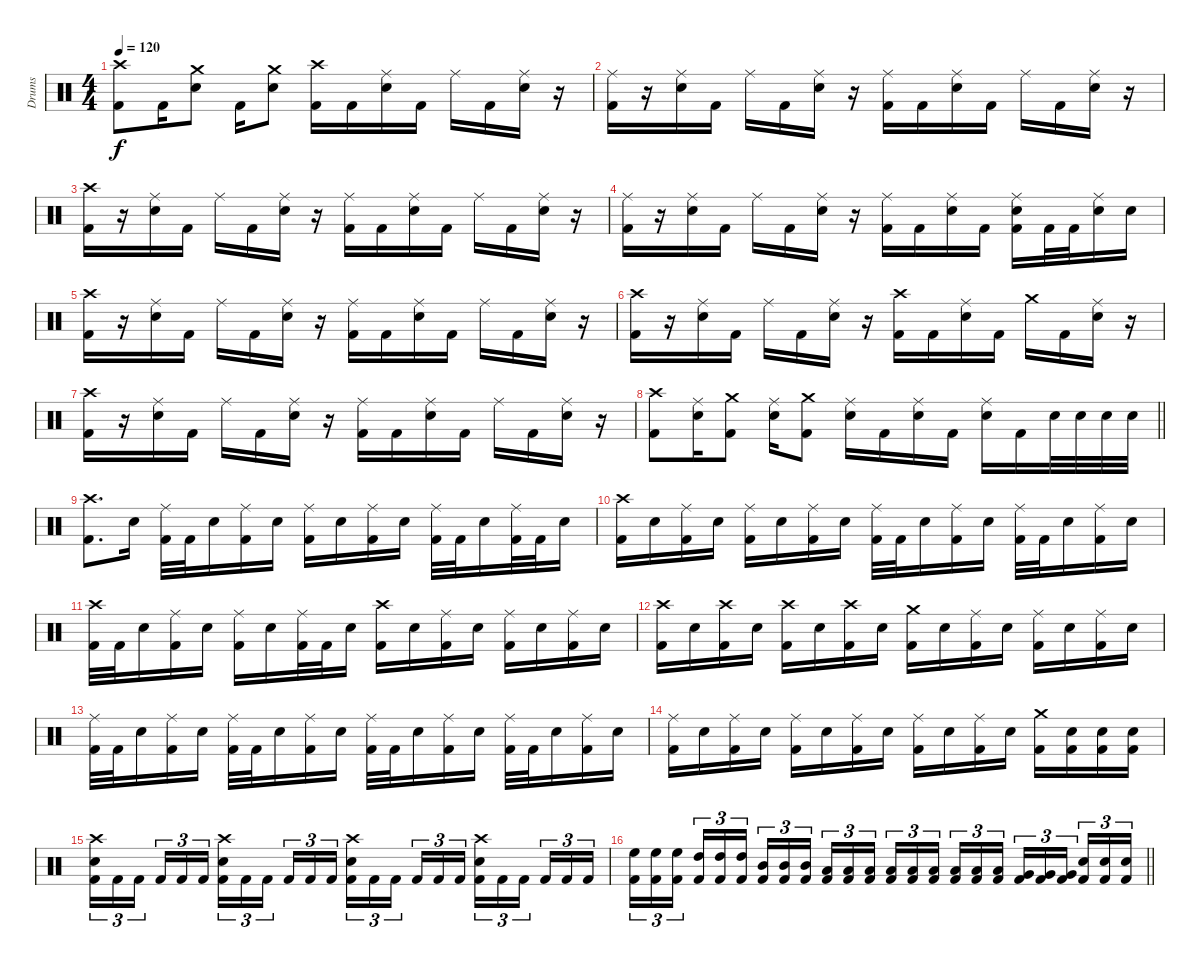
\track ("Drums" "Drums") {instrument percussion}
\staff
\articulation defaults
\ts (4 4)
\section ("" "")
\tempo 120
\clef neutral
\ks c
("Crash high (hit)" "Kick (hit) 2").8{dy f} "Kick (hit) 2".16 ("Crash medium (hit)" "Electric Snare (hit)").8 "Kick (hit) 2".16 ("Crash medium (hit)" "Electric Snare (hit)").8 ("Crash high (hit)" "Kick (hit) 2").16 "Kick (hit) 2".16 ("Ride (middle)" "Electric Snare (hit)").16 "Kick (hit) 2".16 "Ride (middle)".16 "Kick (hit) 2".16 ("Ride (middle)" "Electric Snare (hit)").16 r.16 |
("Ride (middle)" "Kick (hit) 2").16 r.16 ("Ride (middle)" "Electric Snare (hit)").16 "Kick (hit) 2".16 "Ride (middle)".16 "Kick (hit) 2".16 ("Ride (middle)" "Electric Snare (hit)").16 r.16 ("Ride (middle)" "Kick (hit) 2").16 "Kick (hit) 2".16 ("Ride (middle)" "Electric Snare (hit)").16 "Kick (hit) 2".16 "Ride (middle)".16 "Kick (hit) 2".16 ("Ride (middle)" "Electric Snare (hit)").16 r.16 |
("Crash high (hit)" "Kick (hit) 2").16 r.16 ("Ride (middle)" "Electric Snare (hit)").16 "Kick (hit) 2".16 "Ride (middle)".16 "Kick (hit) 2".16 ("Ride (middle)" "Electric Snare (hit)").16 r.16 ("Ride (middle)" "Kick (hit) 2").16 "Kick (hit) 2".16 ("Ride (middle)" "Electric Snare (hit)").16 "Kick (hit) 2".16 "Ride (middle)".16 "Kick (hit) 2".16 ("Ride (middle)" "Electric Snare (hit)").16 r.16 |
("Ride (middle)" "Kick (hit) 2").16 r.16 ("Ride (middle)" "Electric Snare (hit)").16 "Kick (hit) 2".16 "Ride (middle)".16 "Kick (hit) 2".16 ("Ride (middle)" "Electric Snare (hit)").16 r.16 ("Ride (middle)" "Kick (hit) 2").16 "Kick (hit) 2".16 ("Ride (middle)" "Electric Snare (hit)").16 "Kick (hit) 2".16 ("Ride (middle)" "Electric Snare (hit)" "Kick (hit) 2").16 "Kick (hit) 2".32 "Kick (hit) 2".32 ("Ride (middle)" "Electric Snare (hit)").16 "Electric Snare (hit)".16 |
("Crash high (hit)" "Kick (hit) 2").16 r.16 ("Ride (middle)" "Electric Snare (hit)").16 "Kick (hit) 2".16 "Ride (middle)".16 "Kick (hit) 2".16 ("Ride (middle)" "Electric Snare (hit)").16 r.16 ("Ride (middle)" "Kick (hit) 2").16 "Kick (hit) 2".16 ("Ride (middle)" "Electric Snare (hit)").16 "Kick (hit) 2".16 "Ride (middle)".16 "Kick (hit) 2".16 ("Ride (middle)" "Electric Snare (hit)").16 r.16 |
("Crash high (hit)" "Kick (hit) 2").16 r.16 ("Ride (middle)" "Electric Snare (hit)").16 "Kick (hit) 2".16 "Ride (middle)".16 "Kick (hit) 2".16 ("Ride (middle)" "Electric Snare (hit)").16 r.16 ("Crash high (hit)" "Kick (hit) 2").16 "Kick (hit) 2".16 ("Ride (middle)" "Electric Snare (hit)").16 "Kick (hit) 2".16 "Crash medium (hit)".16 "Kick (hit) 2".16 ("Ride (middle)" "Electric Snare (hit)").16 r.16 |
("Crash high (hit)" "Kick (hit) 2").16 r.16 ("Ride (middle)" "Electric Snare (hit)").16 "Kick (hit) 2".16 "Ride (middle)".16 "Kick (hit) 2".16 ("Ride (middle)" "Electric Snare (hit)").16 r.16 ("Ride (middle)" "Kick (hit) 2").16 "Kick (hit) 2".16 ("Ride (middle)" "Electric Snare (hit)").16 "Kick (hit) 2".16 "Ride (middle)".16 "Kick (hit) 2".16 ("Ride (middle)" "Electric Snare (hit)").16 r.16 |
\barLineRight lightlight
("Crash high (hit)" "Kick (hit) 2").8 ("Ride (middle)" "Electric Snare (hit)").16 ("Crash medium (hit)" "Kick (hit) 2").8 ("Ride (middle)" "Electric Snare (hit)").16 ("Crash medium (hit)" "Kick (hit) 2").8 ("Ride (middle)" "Electric Snare (hit)").16 "Kick (hit) 2".16 ("Ride (middle)" "Electric Snare (hit)").16 "Kick (hit) 2".16 ("Ride (middle)" "Electric Snare (hit)").16 "Kick (hit) 2".16 "Electric Snare (hit)".32 "Electric Snare (hit)".32 "Electric Snare (hit)".32 "Electric Snare (hit)".32 |
("Crash high (hit)" "Kick (hit) 2").8{d} "Electric Snare (hit)".16 ("Ride (middle)" "Kick (hit) 2").32 "Kick (hit) 2".32 "Electric Snare (hit)".16 ("Ride (middle)" "Kick (hit) 2").16 "Electric Snare (hit)".16 ("Ride (middle)" "Kick (hit) 2").16 "Electric Snare (hit)".16 ("Ride (middle)" "Kick (hit) 2").16 "Electric Snare (hit)".16 ("Ride (middle)" "Kick (hit) 2").32 "Kick (hit) 2".32 "Electric Snare (hit)".16 ("Ride (middle)" "Kick (hit) 2").32 "Kick (hit) 2".32 "Electric Snare (hit)".16 |
("Crash high (hit)" "Kick (hit) 2").16 "Electric Snare (hit)".16 ("Ride (middle)" "Kick (hit) 2").16 "Electric Snare (hit)".16 ("Ride (middle)" "Kick (hit) 2").16 "Electric Snare (hit)".16 ("Ride (middle)" "Kick (hit) 2").16 "Electric Snare (hit)".16 ("Ride (middle)" "Kick (hit) 2").32 "Kick (hit) 2".32 "Electric Snare (hit)".16 ("Ride (middle)" "Kick (hit) 2").16 "Electric Snare (hit)".16 ("Ride (middle)" "Kick (hit) 2").32 "Kick (hit) 2".32 "Electric Snare (hit)".16 ("Ride (middle)" "Kick (hit) 2").16 "Electric Snare (hit)".16 |
("Crash high (hit)" "Kick (hit) 2").32 "Kick (hit) 2".32 "Electric Snare (hit)".16 ("Ride (middle)" "Kick (hit) 2").16 "Electric Snare (hit)".16 ("Ride (middle)" "Kick (hit) 2").16 "Electric Snare (hit)".16 ("Ride (middle)" "Kick (hit) 2").32 "Kick (hit) 2".32 "Electric Snare (hit)".16 ("Crash high (hit)" "Kick (hit) 2").16 "Electric Snare (hit)".16 ("Ride (middle)" "Kick (hit) 2").16 "Electric Snare (hit)".16 ("Ride (middle)" "Kick (hit) 2").16 "Electric Snare (hit)".16 ("Ride (middle)" "Kick (hit) 2").16 "Electric Snare (hit)".16 |
("Crash high (hit)" "Kick (hit) 2").16 "Electric Snare (hit)".16 ("Crash high (hit)" "Kick (hit) 2").16 "Electric Snare (hit)".16 ("Crash high (hit)" "Kick (hit) 2").16 "Electric Snare (hit)".16 ("Crash high (hit)" "Kick (hit) 2").16 "Electric Snare (hit)".16 ("Crash medium (hit)" "Kick (hit) 2").16 "Electric Snare (hit)".16 ("Ride (middle)" "Kick (hit) 2").16 "Electric Snare (hit)".16 ("Ride (middle)" "Kick (hit) 2").16 "Electric Snare (hit)".16 ("Ride (middle)" "Kick (hit) 2").16 "Electric Snare (hit)".16 |
("Ride (middle)" "Kick (hit) 2").32 "Kick (hit) 2".32 "Electric Snare (hit)".16 ("Ride (middle)" "Kick (hit) 2").16 "Electric Snare (hit)".16 ("Ride (middle)" "Kick (hit) 2").32 "Kick (hit) 2".32 "Electric Snare (hit)".16 ("Ride (middle)" "Kick (hit) 2").16 "Electric Snare (hit)".16 ("Ride (middle)" "Kick (hit) 2").32 "Kick (hit) 2".32 "Electric Snare (hit)".16 ("Ride (middle)" "Kick (hit) 2").16 "Electric Snare (hit)".16 ("Ride (middle)" "Kick (hit) 2").32 "Kick (hit) 2".32 "Electric Snare (hit)".16 ("Ride (middle)" "Kick (hit) 2").16 "Electric Snare (hit)".16 |
("Ride (middle)" "Kick (hit) 2").16 "Electric Snare (hit)".16 ("Ride (middle)" "Kick (hit) 2").16 "Electric Snare (hit)".16 ("Ride (middle)" "Kick (hit) 2").16 "Electric Snare (hit)".16 ("Ride (middle)" "Kick (hit) 2").16 "Electric Snare (hit)".16 ("Ride (middle)" "Kick (hit) 2").16 "Electric Snare (hit)".16 ("Ride (middle)" "Kick (hit) 2").16 "Electric Snare (hit)".16 ("Crash medium (hit)" "Kick (hit) 2").16 ("Electric Snare (hit)" "Kick (hit) 2").16 ("Electric Snare (hit)" "Kick (hit) 2").16 ("Electric Snare (hit)" "Kick (hit) 2").16 |
("Crash high (hit)" "Electric Snare (hit)" "Kick (hit) 2").16{tu (3 2)} "Kick (hit) 2".16{tu (3 2)} "Kick (hit) 2".16{tu (3 2) beam splitsecondary} "Kick (hit) 2".16{tu (3 2)} "Kick (hit) 2".16{tu (3 2)} "Kick (hit) 2".16{tu (3 2)} ("Crash high (hit)" "Electric Snare (hit)" "Kick (hit) 2").16{tu (3 2)} "Kick (hit) 2".16{tu (3 2)} "Kick (hit) 2".16{tu (3 2) beam splitsecondary} "Kick (hit) 2".16{tu (3 2)} "Kick (hit) 2".16{tu (3 2)} "Kick (hit) 2".16{tu (3 2)} ("Crash high (hit)" "Electric Snare (hit)" "Kick (hit) 2").16{tu (3 2)} "Kick (hit) 2".16{tu (3 2)} "Kick (hit) 2".16{tu (3 2) beam splitsecondary} "Kick (hit) 2".16{tu (3 2)} "Kick (hit) 2".16{tu (3 2)} "Kick (hit) 2".16{tu (3 2)} ("Crash high (hit)" "Electric Snare (hit)" "Kick (hit) 2").16{tu (3 2)} "Kick (hit) 2".16{tu (3 2)} "Kick (hit) 2".16{tu (3 2) beam splitsecondary} "Kick (hit) 2".16{tu (3 2)} "Kick (hit) 2".16{tu (3 2)} "Kick (hit) 2".16{tu (3 2)} |
\barLineRight lightlight
("High Floor Tom (hit)" "Kick (hit) 2").16{tu (3 2)} ("High Floor Tom (hit)" "Kick (hit) 2").16{tu (3 2)} ("High Floor Tom (hit)" "Kick (hit) 2").16{tu (3 2) beam splitsecondary} ("High Tom (hit)" "Kick (hit) 2").16{tu (3 2)} ("High Tom (hit)" "Kick (hit) 2").16{tu (3 2)} ("High Tom (hit)" "Kick (hit) 2").16{tu (3 2)} ("Mid Tom (hit)" "Kick (hit) 2").16{tu (3 2)} ("Mid Tom (hit)" "Kick (hit) 2").16{tu (3 2)} ("Mid Tom (hit)" "Kick (hit) 2").16{tu (3 2) beam splitsecondary} ("Low Tom (hit)" "Kick (hit) 2").16{tu (3 2)} ("Low Tom (hit)" "Kick (hit) 2").16{tu (3 2)} ("Low Tom (hit)" "Kick (hit) 2").16{tu (3 2)} ("Low Floor Tom (hit)" "Kick (hit) 2").16{tu (3 2)} ("Low Floor Tom (hit)" "Kick (hit) 2").16{tu (3 2)} ("Low Floor Tom (hit)" "Kick (hit) 2").16{tu (3 2) beam splitsecondary} ("Low Tom (hit)" "Kick (hit) 2").16{tu (3 2)} ("Low Tom (hit)" "Kick (hit) 2").16{tu (3 2)} ("Low Tom (hit)" "Kick (hit) 2").16{tu (3 2)} ("Very Low Tom (hit)" "Kick (hit) 2").16{tu (3 2)} ("Very Low Tom (hit)" "Kick (hit) 2").16{tu (3 2)} ("Very Low Tom (hit)" "Kick (hit) 2").16{tu (3 2) beam splitsecondary} ("Electric Snare (hit)" "Kick (hit) 2").16{tu (3 2)} ("Electric Snare (hit)" "Kick (hit) 2").16{tu (3 2)} ("Electric Snare (hit)" "Kick (hit) 2").16{tu (3 2)}
